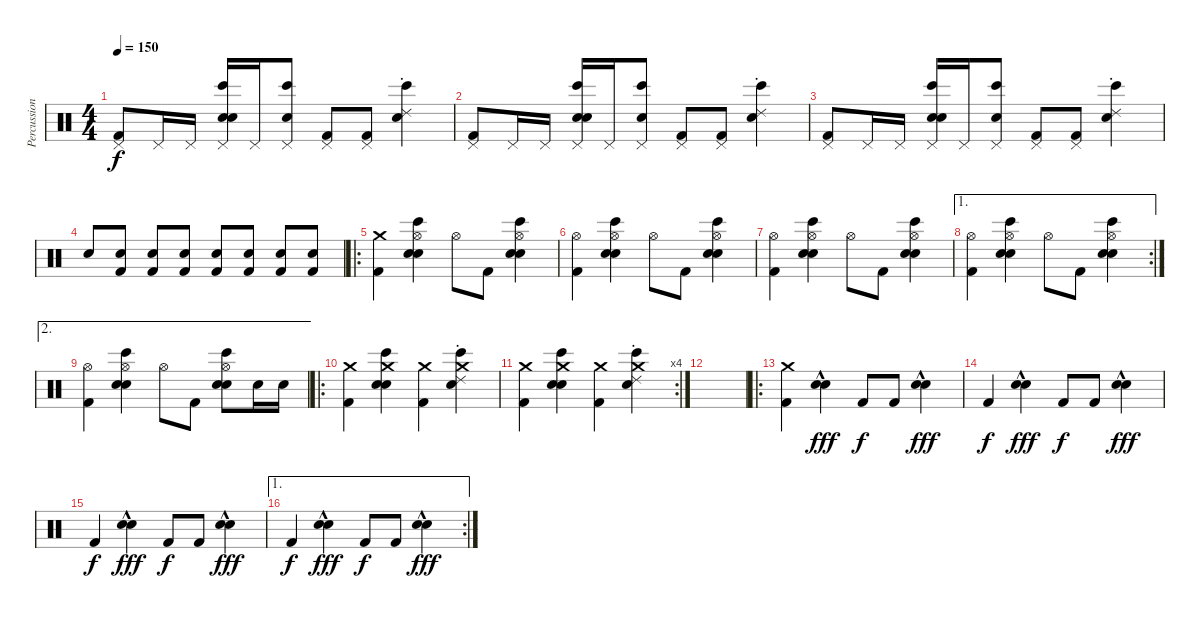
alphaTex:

\track ("Percussion" "Percussion") {instrument percussion}
\staff {score}
\articulation defaults
\ts (4 4)
\tempo 150
\clef neutral
\ks c
("Pedal Hi-Hat (hit)" "Kick (hit) 2").8{dy f} "Pedal Hi-Hat (hit)".16 "Pedal Hi-Hat (hit)".16 ("Bongo High (hit)" "Hand Clap (hit)" "Pedal Hi-Hat (hit)" "Snare (hit) 2").16 "Pedal Hi-Hat (hit)".16 ("Bongo High (hit)" "Pedal Hi-Hat (hit)" "Hand Clap (hit)").8 ("Pedal Hi-Hat (hit)" "Kick (hit) 2").8 ("Pedal Hi-Hat (hit)" "Kick (hit) 2").8 ("Ride (choke) 2" "Bongo High (hit)" "Snare (hit) 2").4 |
("Pedal Hi-Hat (hit)" "Kick (hit) 2").8 "Pedal Hi-Hat (hit)".16 "Pedal Hi-Hat (hit)".16 ("Bongo High (hit)" "Hand Clap (hit)" "Pedal Hi-Hat (hit)" "Snare (hit) 2").16 "Pedal Hi-Hat (hit)".16 ("Bongo High (hit)" "Pedal Hi-Hat (hit)" "Hand Clap (hit)").8 ("Pedal Hi-Hat (hit)" "Kick (hit) 2").8 ("Pedal Hi-Hat (hit)" "Kick (hit) 2").8 ("Ride (choke) 2" "Bongo High (hit)" "Snare (hit) 2").4 |
("Pedal Hi-Hat (hit)" "Kick (hit) 2").8 "Pedal Hi-Hat (hit)".16 "Pedal Hi-Hat (hit)".16 ("Bongo High (hit)" "Hand Clap (hit)" "Pedal Hi-Hat (hit)" "Snare (hit) 2").16 "Pedal Hi-Hat (hit)".16 ("Bongo High (hit)" "Pedal Hi-Hat (hit)" "Hand Clap (hit)").8 ("Pedal Hi-Hat (hit)" "Kick (hit) 2").8 ("Pedal Hi-Hat (hit)" "Kick (hit) 2").8 ("Ride (choke) 2" "Bongo High (hit)" "Snare (hit) 2").4 |
"Snare (hit) 2".8{volume 7} ("Snare (hit) 2" "Kick (hit) 2").8{volume 14} ("Snare (hit) 2" "Kick (hit) 2").8 ("Snare (hit) 2" "Kick (hit) 2").8 ("Snare (hit) 2" "Kick (hit) 2").8 ("Snare (hit) 2" "Kick (hit) 2").8 ("Snare (hit) 2" "Kick (hit) 2").8 ("Snare (hit) 2" "Kick (hit) 2").8 |
\ro
("Crash medium (hit)" "Kick (hit) 2").4 ("Hi-Hat (open)" "Hand Clap (hit)" "Bongo High (hit)" "Snare (hit) 2").4 "Hi-Hat (open)".8 "Kick (hit) 2".8 ("Hi-Hat (open)" "Hand Clap (hit)" "Bongo High (hit)" "Snare (hit) 2").4 |
("Hi-Hat (open)" "Kick (hit) 2").4 ("Hi-Hat (open)" "Hand Clap (hit)" "Bongo High (hit)" "Snare (hit) 2").4 "Hi-Hat (open)".8 "Kick (hit) 2".8 ("Hi-Hat (open)" "Hand Clap (hit)" "Bongo High (hit)" "Snare (hit) 2").4 |
("Hi-Hat (open)" "Kick (hit) 2").4 ("Hi-Hat (open)" "Hand Clap (hit)" "Bongo High (hit)" "Snare (hit) 2").4 "Hi-Hat (open)".8 "Kick (hit) 2".8 ("Hi-Hat (open)" "Hand Clap (hit)" "Bongo High (hit)" "Snare (hit) 2").4 |
\ae 1
\rc 2
("Hi-Hat (open)" "Kick (hit) 2").4 ("Hi-Hat (open)" "Hand Clap (hit)" "Bongo High (hit)" "Snare (hit) 2").4 "Hi-Hat (open)".8 "Kick (hit) 2".8 ("Hi-Hat (open)" "Hand Clap (hit)" "Bongo High (hit)" "Snare (hit) 2").4 |
\ae 2
("Hi-Hat (open)" "Kick (hit) 2").4 ("Hi-Hat (open)" "Hand Clap (hit)" "Bongo High (hit)" "Snare (hit) 2").4 "Hi-Hat (open)".8 "Kick (hit) 2".8 ("Hi-Hat (open)" "Hand Clap (hit)" "Bongo High (hit)" "Snare (hit) 2").8 "Snare (hit) 2".16 "Snare (hit) 2".16 |
\ro
("Crash medium (hit)" "Kick (hit) 2").4 ("Crash medium (hit)" "Bongo High (hit)" "Hand Clap (hit)" "Snare (hit) 2").4 ("Crash medium (hit)" "Kick (hit) 2").4 ("Crash medium (hit)" "Bongo High (hit)" "Ride (choke) 2" "Snare (hit) 2").4 |
\rc 4
("Crash medium (hit)" "Kick (hit) 2").4 ("Crash medium (hit)" "Bongo High (hit)" "Hand Clap (hit)" "Snare (hit) 2").4 ("Crash medium (hit)" "Kick (hit) 2").4 ("Crash medium (hit)" "Bongo High (hit)" "Ride (choke) 2" "Snare (hit) 2").4 |
|
\ro
("Crash medium (hit)" "Kick (hit) 2").4 ("Hand Clap (hit)"{hac} "Snare (hit) 2").4{dy fff} "Kick (hit) 2".8{dy f} "Kick (hit) 2".8 ("Hand Clap (hit)"{hac} "Snare (hit) 2").4{dy fff} |
"Kick (hit) 2".4{dy f} ("Hand Clap (hit)"{hac} "Snare (hit) 2").4{dy fff} "Kick (hit) 2".8{dy f} "Kick (hit) 2".8 ("Hand Clap (hit)"{hac} "Snare (hit) 2").4{dy fff} |
"Kick (hit) 2".4{dy f} ("Hand Clap (hit)"{hac} "Snare (hit) 2").4{dy fff} "Kick (hit) 2".8{dy f} "Kick (hit) 2".8 ("Hand Clap (hit)"{hac} "Snare (hit) 2").4{dy fff} |
\ae 1
\rc 2 "Kick (hit) 2".4{dy f}
("Hand Clap (hit)"{hac} "Snare (hit) 2").4{dy fff} "Kick (hit) 2".8{dy f} "Kick (hit) 2".8 ("Hand Clap (hit)"{hac} "Snare (hit) 2").4{dy fff}
